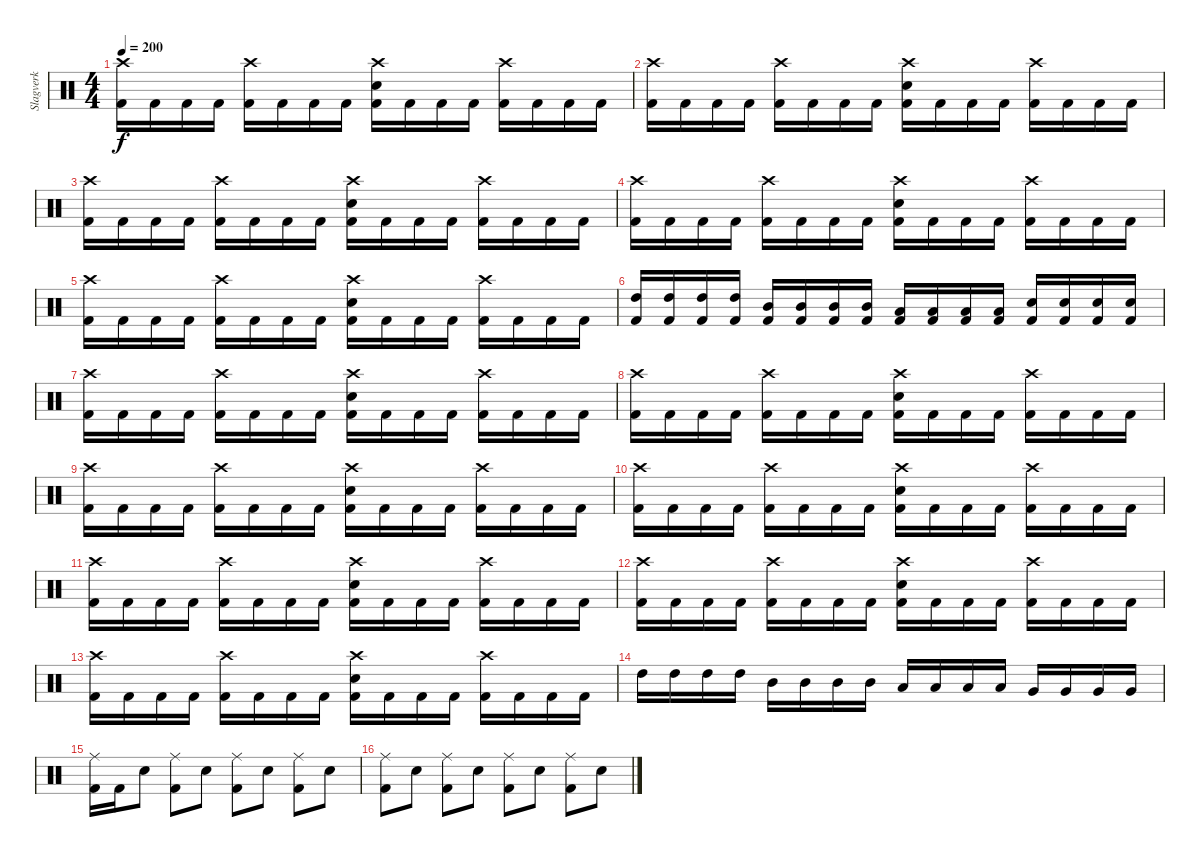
\track ("Slagverk" "Slagverk") {instrument percussion}
\staff {score}
\articulation defaults
\ts (4 4)
\tempo 200
\clef neutral
\ks c
("Crash high (hit)" "Kick (hit) 2").16{dy f} "Kick (hit) 2".16 "Kick (hit) 2".16 "Kick (hit) 2".16 ("Crash high (hit)" "Kick (hit) 2").16 "Kick (hit) 2".16 "Kick (hit) 2".16 "Kick (hit) 2".16 ("Crash high (hit)" "Kick (hit) 2" "Snare (hit) 2").16 "Kick (hit) 2".16 "Kick (hit) 2".16 "Kick (hit) 2".16 ("Crash high (hit)" "Kick (hit) 2").16 "Kick (hit) 2".16 "Kick (hit) 2".16 "Kick (hit) 2".16 |
("Crash high (hit)" "Kick (hit) 2").16 "Kick (hit) 2".16 "Kick (hit) 2".16 "Kick (hit) 2".16 ("Crash high (hit)" "Kick (hit) 2").16 "Kick (hit) 2".16 "Kick (hit) 2".16 "Kick (hit) 2".16 ("Crash high (hit)" "Kick (hit) 2" "Snare (hit) 2").16 "Kick (hit) 2".16 "Kick (hit) 2".16 "Kick (hit) 2".16 ("Crash high (hit)" "Kick (hit) 2").16 "Kick (hit) 2".16 "Kick (hit) 2".16 "Kick (hit) 2".16 |
("Crash high (hit)" "Kick (hit) 2").16 "Kick (hit) 2".16 "Kick (hit) 2".16 "Kick (hit) 2".16 ("Crash high (hit)" "Kick (hit) 2").16 "Kick (hit) 2".16 "Kick (hit) 2".16 "Kick (hit) 2".16 ("Crash high (hit)" "Kick (hit) 2" "Snare (hit) 2").16 "Kick (hit) 2".16 "Kick (hit) 2".16 "Kick (hit) 2".16 ("Crash high (hit)" "Kick (hit) 2").16 "Kick (hit) 2".16 "Kick (hit) 2".16 "Kick (hit) 2".16 |
("Crash high (hit)" "Kick (hit) 2").16 "Kick (hit) 2".16 "Kick (hit) 2".16 "Kick (hit) 2".16 ("Crash high (hit)" "Kick (hit) 2").16 "Kick (hit) 2".16 "Kick (hit) 2".16 "Kick (hit) 2".16 ("Crash high (hit)" "Kick (hit) 2" "Snare (hit) 2").16 "Kick (hit) 2".16 "Kick (hit) 2".16 "Kick (hit) 2".16 ("Crash high (hit)" "Kick (hit) 2").16 "Kick (hit) 2".16 "Kick (hit) 2".16 "Kick (hit) 2".16 |
("Crash high (hit)" "Kick (hit) 2").16 "Kick (hit) 2".16 "Kick (hit) 2".16 "Kick (hit) 2".16 ("Crash high (hit)" "Kick (hit) 2").16 "Kick (hit) 2".16 "Kick (hit) 2".16 "Kick (hit) 2".16 ("Crash high (hit)" "Kick (hit) 2" "Snare (hit) 2").16 "Kick (hit) 2".16 "Kick (hit) 2".16 "Kick (hit) 2".16 ("Crash high (hit)" "Kick (hit) 2").16 "Kick (hit) 2".16 "Kick (hit) 2".16 "Kick (hit) 2".16 |
("High Tom (hit)" "Kick (hit) 2").16 ("High Tom (hit)" "Kick (hit) 2").16 ("High Tom (hit)" "Kick (hit) 2").16 ("High Tom (hit)" "Kick (hit) 2").16 ("Mid Tom (hit)" "Kick (hit) 2").16 ("Mid Tom (hit)" "Kick (hit) 2").16 ("Mid Tom (hit)" "Kick (hit) 2").16 ("Mid Tom (hit)" "Kick (hit) 2").16 ("Low Tom (hit)" "Kick (hit) 2").16 ("Low Tom (hit)" "Kick (hit) 2").16 ("Low Tom (hit)" "Kick (hit) 2").16 ("Low Tom (hit)" "Kick (hit) 2").16 ("Snare (hit) 2" "Kick (hit) 2").16 ("Snare (hit) 2" "Kick (hit) 2").16 ("Snare (hit) 2" "Kick (hit) 2").16 ("Snare (hit) 2" "Kick (hit) 2").16 |
("Crash high (hit)" "Kick (hit) 2").16 "Kick (hit) 2".16 "Kick (hit) 2".16 "Kick (hit) 2".16 ("Crash high (hit)" "Kick (hit) 2").16 "Kick (hit) 2".16 "Kick (hit) 2".16 "Kick (hit) 2".16 ("Crash high (hit)" "Kick (hit) 2" "Snare (hit) 2").16 "Kick (hit) 2".16 "Kick (hit) 2".16 "Kick (hit) 2".16 ("Crash high (hit)" "Kick (hit) 2").16 "Kick (hit) 2".16 "Kick (hit) 2".16 "Kick (hit) 2".16 |
("Crash high (hit)" "Kick (hit) 2").16 "Kick (hit) 2".16 "Kick (hit) 2".16 "Kick (hit) 2".16 ("Crash high (hit)" "Kick (hit) 2").16 "Kick (hit) 2".16 "Kick (hit) 2".16 "Kick (hit) 2".16 ("Crash high (hit)" "Kick (hit) 2" "Snare (hit) 2").16 "Kick (hit) 2".16 "Kick (hit) 2".16 "Kick (hit) 2".16 ("Crash high (hit)" "Kick (hit) 2").16 "Kick (hit) 2".16 "Kick (hit) 2".16 "Kick (hit) 2".16 |
("Crash high (hit)" "Kick (hit) 2").16 "Kick (hit) 2".16 "Kick (hit) 2".16 "Kick (hit) 2".16 ("Crash high (hit)" "Kick (hit) 2").16 "Kick (hit) 2".16 "Kick (hit) 2".16 "Kick (hit) 2".16 ("Crash high (hit)" "Kick (hit) 2" "Snare (hit) 2").16 "Kick (hit) 2".16 "Kick (hit) 2".16 "Kick (hit) 2".16 ("Crash high (hit)" "Kick (hit) 2").16 "Kick (hit) 2".16 "Kick (hit) 2".16 "Kick (hit) 2".16 |
("Crash high (hit)" "Kick (hit) 2").16 "Kick (hit) 2".16 "Kick (hit) 2".16 "Kick (hit) 2".16 ("Crash high (hit)" "Kick (hit) 2").16 "Kick (hit) 2".16 "Kick (hit) 2".16 "Kick (hit) 2".16 ("Crash high (hit)" "Kick (hit) 2" "Snare (hit) 2").16 "Kick (hit) 2".16 "Kick (hit) 2".16 "Kick (hit) 2".16 ("Crash high (hit)" "Kick (hit) 2").16 "Kick (hit) 2".16 "Kick (hit) 2".16 "Kick (hit) 2".16 |
("Crash high (hit)" "Kick (hit) 2").16 "Kick (hit) 2".16 "Kick (hit) 2".16 "Kick (hit) 2".16 ("Crash high (hit)" "Kick (hit) 2").16 "Kick (hit) 2".16 "Kick (hit) 2".16 "Kick (hit) 2".16 ("Crash high (hit)" "Kick (hit) 2" "Snare (hit) 2").16 "Kick (hit) 2".16 "Kick (hit) 2".16 "Kick (hit) 2".16 ("Crash high (hit)" "Kick (hit) 2").16 "Kick (hit) 2".16 "Kick (hit) 2".16 "Kick (hit) 2".16 |
("Crash high (hit)" "Kick (hit) 2").16 "Kick (hit) 2".16 "Kick (hit) 2".16 "Kick (hit) 2".16 ("Crash high (hit)" "Kick (hit) 2").16 "Kick (hit) 2".16 "Kick (hit) 2".16 "Kick (hit) 2".16 ("Crash high (hit)" "Kick (hit) 2" "Snare (hit) 2").16 "Kick (hit) 2".16 "Kick (hit) 2".16 "Kick (hit) 2".16 ("Crash high (hit)" "Kick (hit) 2").16 "Kick (hit) 2".16 "Kick (hit) 2".16 "Kick (hit) 2".16 |
("Crash high (hit)" "Kick (hit) 2").16 "Kick (hit) 2".16 "Kick (hit) 2".16 "Kick (hit) 2".16 ("Crash high (hit)" "Kick (hit) 2").16 "Kick (hit) 2".16 "Kick (hit) 2".16 "Kick (hit) 2".16 ("Crash high (hit)" "Kick (hit) 2" "Snare (hit) 2").16 "Kick (hit) 2".16 "Kick (hit) 2".16 "Kick (hit) 2".16 ("Crash high (hit)" "Kick (hit) 2").16 "Kick (hit) 2".16 "Kick (hit) 2".16 "Kick (hit) 2".16 |
"High Tom (hit)".16 "High Tom (hit)".16 "High Tom (hit)".16 "High Tom (hit)".16 "Mid Tom (hit)".16 "Mid Tom (hit)".16 "Mid Tom (hit)".16 "Mid Tom (hit)".16 "Low Tom (hit)".16 "Low Tom (hit)".16 "Low Tom (hit)".16 "Low Tom (hit)".16 "Very Low Tom (hit)".16 "Very Low Tom (hit)".16 "Very Low Tom (hit)".16 "Very Low Tom (hit)".16 |
("Ride (middle)" "Kick (hit) 2").16 "Kick (hit) 2".16 "Snare (hit) 2".8 ("Ride (middle)" "Kick (hit) 2").8 "Snare (hit) 2".8 ("Ride (middle)" "Kick (hit) 2").8 "Snare (hit) 2".8 ("Ride (middle)" "Kick (hit) 2").8 "Snare (hit) 2".8 |
("Ride (middle)" "Kick (hit) 2").8 "Snare (hit) 2".8 ("Ride (middle)" "Kick (hit) 2").8 "Snare (hit) 2".8 ("Ride (middle)" "Kick (hit) 2").8 "Snare (hit) 2".8 ("Ride (middle)" "Kick (hit) 2").8 "Snare (hit) 2".8
